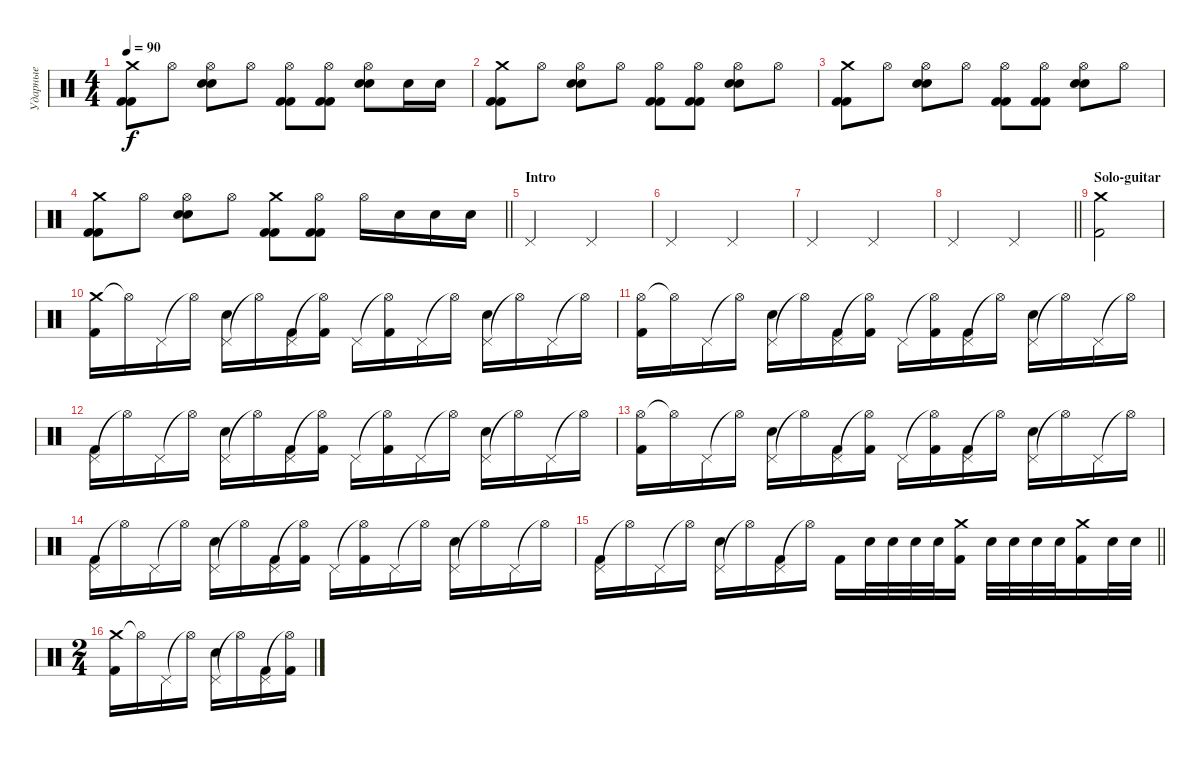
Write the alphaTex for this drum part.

\track ("Ударные" "Ударные") {instrument percussion}
\staff {score}
\articulation defaults
\ts (4 4)
\tempo 90
\clef neutral
\ks c
("Crash medium (hit)" "Kick (hit) 2" "Kick (hit) 2").8{dy f} "Hi-Hat (open)".8 ("Hi-Hat (open)" "Snare (hit) 2" "Snare (hit) 2").8 "Hi-Hat (open)".8 ("Hi-Hat (open)" "Kick (hit) 2" "Kick (hit) 2").8 ("Hi-Hat (open)" "Kick (hit) 2" "Kick (hit) 2").8 ("Hi-Hat (open)" "Snare (hit) 2" "Snare (hit) 2").8 "Snare (hit) 2".16 "Snare (hit) 2".16 |
("Crash medium (hit)" "Kick (hit) 2" "Kick (hit) 2").8 "Hi-Hat (open)".8 ("Hi-Hat (open)" "Snare (hit) 2" "Snare (hit) 2").8 "Hi-Hat (open)".8 ("Hi-Hat (open)" "Kick (hit) 2" "Kick (hit) 2").8 ("Hi-Hat (open)" "Kick (hit) 2" "Kick (hit) 2").8 ("Hi-Hat (open)" "Snare (hit) 2" "Snare (hit) 2").8 "Hi-Hat (open)".8 |
("Crash medium (hit)" "Kick (hit) 2" "Kick (hit) 2").8 "Hi-Hat (open)".8 ("Hi-Hat (open)" "Snare (hit) 2" "Snare (hit) 2").8 "Hi-Hat (open)".8 ("Hi-Hat (open)" "Kick (hit) 2" "Kick (hit) 2").8 ("Hi-Hat (open)" "Kick (hit) 2" "Kick (hit) 2").8 ("Hi-Hat (open)" "Snare (hit) 2" "Snare (hit) 2").8 "Hi-Hat (open)".8 |
\barLineRight lightlight
("Crash medium (hit)" "Kick (hit) 2" "Kick (hit) 2").8 "Hi-Hat (open)".8 ("Hi-Hat (open)" "Snare (hit) 2" "Snare (hit) 2").8 "Hi-Hat (open)".8 ("Crash medium (hit)" "Kick (hit) 2" "Kick (hit) 2").8 ("Hi-Hat (open)" "Kick (hit) 2" "Kick (hit) 2").8 "Hi-Hat (open)".16 "Snare (hit) 2".16 "Snare (hit) 2".16 "Snare (hit) 2".16 |
\section ("" "Intro")
"Pedal Hi-Hat (hit)".2 "Pedal Hi-Hat (hit)".2 |
"Pedal Hi-Hat (hit)".2 "Pedal Hi-Hat (hit)".2 |
"Pedal Hi-Hat (hit)".2 "Pedal Hi-Hat (hit)".2 |
\barLineRight lightlight "Pedal Hi-Hat (hit)".2 "Pedal Hi-Hat (hit)".2
|
\section ("" "Solo-guitar")
("Kick (hit) 2" "Crash medium (hit)").2 |
("Crash medium (hit)" "Kick (hit) 2").16 "Hi-Hat (open)"{t}.16 "Pedal Hi-Hat (hit)".16 "Hi-Hat (open)"{t}.16 ("Pedal Hi-Hat (hit)" "Snare (hit) 2").16 "Hi-Hat (open)"{t}.16 ("Pedal Hi-Hat (hit)" "Kick (hit) 2").16 ("Hi-Hat (open)"{t} "Kick (hit) 2").16 "Pedal Hi-Hat (hit)".16 ("Hi-Hat (open)"{t} "Kick (hit) 2").16 "Pedal Hi-Hat (hit)".16 "Hi-Hat (open)"{t}.16 ("Pedal Hi-Hat (hit)" "Snare (hit) 2").16 "Hi-Hat (open)"{t}.16 "Pedal Hi-Hat (hit)".16 "Hi-Hat (open)"{t}.16 |
("Hi-Hat (open)" "Kick (hit) 2").16 "Hi-Hat (open)"{t}.16 "Pedal Hi-Hat (hit)".16 "Hi-Hat (open)"{t}.16 ("Pedal Hi-Hat (hit)" "Snare (hit) 2").16 "Hi-Hat (open)"{t}.16 ("Pedal Hi-Hat (hit)" "Kick (hit) 2").16 ("Hi-Hat (open)"{t} "Kick (hit) 2").16 "Pedal Hi-Hat (hit)".16 ("Hi-Hat (open)"{t} "Kick (hit) 2").16 ("Pedal Hi-Hat (hit)" "Kick (hit) 2").16 "Hi-Hat (open)"{t}.16 ("Pedal Hi-Hat (hit)" "Snare (hit) 2").16 "Hi-Hat (open)"{t}.16 "Pedal Hi-Hat (hit)".16 "Hi-Hat (open)"{t}.16 |
("Pedal Hi-Hat (hit)" "Kick (hit) 2").16 "Hi-Hat (open)"{t}.16 "Pedal Hi-Hat (hit)".16 "Hi-Hat (open)"{t}.16 ("Pedal Hi-Hat (hit)" "Snare (hit) 2").16 "Hi-Hat (open)"{t}.16 ("Pedal Hi-Hat (hit)" "Kick (hit) 2").16 ("Hi-Hat (open)"{t} "Kick (hit) 2").16 "Pedal Hi-Hat (hit)".16 ("Hi-Hat (open)"{t} "Kick (hit) 2").16 "Pedal Hi-Hat (hit)".16 "Hi-Hat (open)"{t}.16 ("Pedal Hi-Hat (hit)" "Snare (hit) 2").16 "Hi-Hat (open)"{t}.16 "Pedal Hi-Hat (hit)".16 "Hi-Hat (open)"{t}.16 |
("Hi-Hat (open)" "Kick (hit) 2").16 "Hi-Hat (open)"{t}.16 "Pedal Hi-Hat (hit)".16 "Hi-Hat (open)"{t}.16 ("Pedal Hi-Hat (hit)" "Snare (hit) 2").16 "Hi-Hat (open)"{t}.16 ("Pedal Hi-Hat (hit)" "Kick (hit) 2").16 ("Hi-Hat (open)"{t} "Kick (hit) 2").16 "Pedal Hi-Hat (hit)".16 ("Hi-Hat (open)"{t} "Kick (hit) 2").16 ("Pedal Hi-Hat (hit)" "Kick (hit) 2").16 "Hi-Hat (open)"{t}.16 ("Pedal Hi-Hat (hit)" "Snare (hit) 2").16 "Hi-Hat (open)"{t}.16 "Pedal Hi-Hat (hit)".16 "Hi-Hat (open)"{t}.16 |
("Pedal Hi-Hat (hit)" "Kick (hit) 2").16 "Hi-Hat (open)"{t}.16 "Pedal Hi-Hat (hit)".16 "Hi-Hat (open)"{t}.16 ("Pedal Hi-Hat (hit)" "Snare (hit) 2").16 "Hi-Hat (open)"{t}.16 ("Pedal Hi-Hat (hit)" "Kick (hit) 2").16 ("Hi-Hat (open)"{t} "Kick (hit) 2").16 "Pedal Hi-Hat (hit)".16 ("Hi-Hat (open)"{t} "Kick (hit) 2").16 "Pedal Hi-Hat (hit)".16 "Hi-Hat (open)"{t}.16 ("Pedal Hi-Hat (hit)" "Snare (hit) 2").16 "Hi-Hat (open)"{t}.16 "Pedal Hi-Hat (hit)".16 "Hi-Hat (open)"{t}.16 |
\barLineRight lightlight
("Pedal Hi-Hat (hit)" "Kick (hit) 2").16 "Hi-Hat (open)"{t}.16 "Pedal Hi-Hat (hit)".16 "Hi-Hat (open)"{t}.16 ("Pedal Hi-Hat (hit)" "Snare (hit) 2").16 "Hi-Hat (open)"{t}.16 ("Pedal Hi-Hat (hit)" "Kick (hit) 2").16 "Hi-Hat (open)"{t}.16 "Kick (hit) 2".16 "Snare (hit) 2".32 "Snare (hit) 2".32 "Snare (hit) 2".32 "Snare (hit) 2".32 ("Kick (hit) 2" "Crash medium (hit)").16 "Snare (hit) 2".32 "Snare (hit) 2".32 "Snare (hit) 2".32 "Snare (hit) 2".32 ("Kick (hit) 2" "Crash medium (hit)").16 "Snare (hit) 2".32 "Snare (hit) 2".32 |
\ts (2 4)
("Crash medium (hit)" "Kick (hit) 2").16 "Hi-Hat (open)"{t}.16 "Pedal Hi-Hat (hit)".16 "Hi-Hat (open)"{t}.16 ("Pedal Hi-Hat (hit)" "Snare (hit) 2").16 "Hi-Hat (open)"{t}.16 ("Pedal Hi-Hat (hit)" "Kick (hit) 2").16 ("Hi-Hat (open)"{t} "Kick (hit) 2").16
